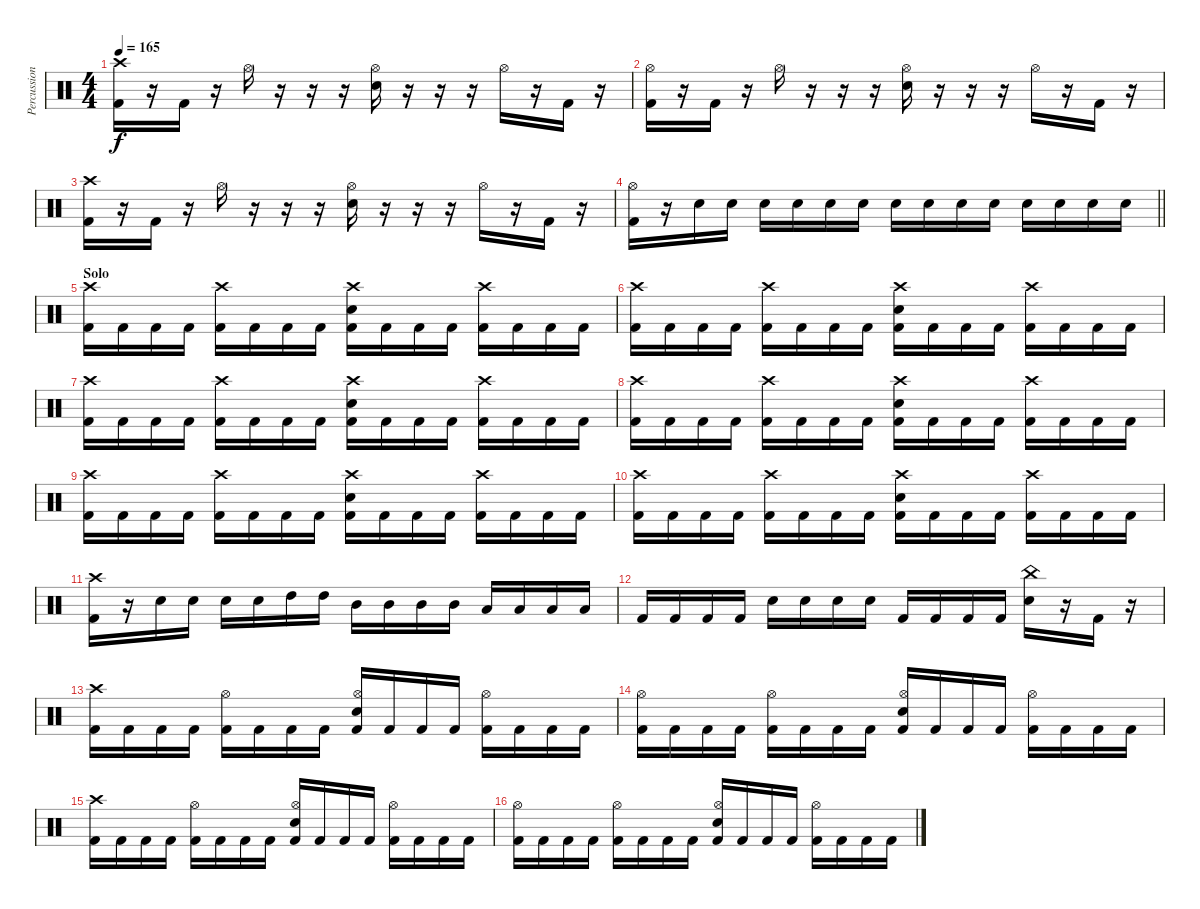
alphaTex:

\track ("Percussion" "Percussion") {instrument percussion}
\staff {score}
\articulation defaults
\ts (4 4)
\tempo 165
\clef neutral
\ks c
("Crash high (hit)" "Kick (hit) 2").16{dy f} r.16 "Kick (hit) 2".16 r.16 "Hi-Hat (open)".16 r.16 r.16 r.16 ("Hi-Hat (open)" "Snare (hit) 2").16 r.16 r.16 r.16 "Hi-Hat (open)".16 r.16 "Kick (hit) 2".16 r.16 |
("Hi-Hat (open)" "Kick (hit) 2").16 r.16 "Kick (hit) 2".16 r.16 "Hi-Hat (open)".16 r.16 r.16 r.16 ("Hi-Hat (open)" "Snare (hit) 2").16 r.16 r.16 r.16 "Hi-Hat (open)".16 r.16 "Kick (hit) 2".16 r.16 |
("Crash high (hit)" "Kick (hit) 2").16 r.16 "Kick (hit) 2".16 r.16 "Hi-Hat (open)".16 r.16 r.16 r.16 ("Hi-Hat (open)" "Snare (hit) 2").16 r.16 r.16 r.16 "Hi-Hat (open)".16 r.16 "Kick (hit) 2".16 r.16 |
\barLineRight lightlight
("Hi-Hat (open)" "Kick (hit) 2").16 r.16 "Snare (hit) 2".16 "Snare (hit) 2".16 "Snare (hit) 2".16 "Snare (hit) 2".16 "Snare (hit) 2".16 "Snare (hit) 2".16 "Snare (hit) 2".16 "Snare (hit) 2".16 "Snare (hit) 2".16 "Snare (hit) 2".16 "Snare (hit) 2".16 "Snare (hit) 2".16 "Snare (hit) 2".16 "Snare (hit) 2".16 |
\section ("" "Solo")
("Crash high (hit)" "Kick (hit) 2").16 "Kick (hit) 2".16 "Kick (hit) 2".16 "Kick (hit) 2".16 ("Crash high (hit)" "Kick (hit) 2").16 "Kick (hit) 2".16 "Kick (hit) 2".16 "Kick (hit) 2".16 ("Crash high (hit)" "Snare (hit) 2" "Kick (hit) 2").16 "Kick (hit) 2".16 "Kick (hit) 2".16 "Kick (hit) 2".16 ("Crash high (hit)" "Kick (hit) 2").16 "Kick (hit) 2".16 "Kick (hit) 2".16 "Kick (hit) 2".16 |
("Crash high (hit)" "Kick (hit) 2").16 "Kick (hit) 2".16 "Kick (hit) 2".16 "Kick (hit) 2".16 ("Crash high (hit)" "Kick (hit) 2").16 "Kick (hit) 2".16 "Kick (hit) 2".16 "Kick (hit) 2".16 ("Crash high (hit)" "Snare (hit) 2" "Kick (hit) 2").16 "Kick (hit) 2".16 "Kick (hit) 2".16 "Kick (hit) 2".16 ("Crash high (hit)" "Kick (hit) 2").16 "Kick (hit) 2".16 "Kick (hit) 2".16 "Kick (hit) 2".16 |
("Crash high (hit)" "Kick (hit) 2").16 "Kick (hit) 2".16 "Kick (hit) 2".16 "Kick (hit) 2".16 ("Crash high (hit)" "Kick (hit) 2").16 "Kick (hit) 2".16 "Kick (hit) 2".16 "Kick (hit) 2".16 ("Crash high (hit)" "Snare (hit) 2" "Kick (hit) 2").16 "Kick (hit) 2".16 "Kick (hit) 2".16 "Kick (hit) 2".16 ("Crash high (hit)" "Kick (hit) 2").16 "Kick (hit) 2".16 "Kick (hit) 2".16 "Kick (hit) 2".16 |
("Crash high (hit)" "Kick (hit) 2").16 "Kick (hit) 2".16 "Kick (hit) 2".16 "Kick (hit) 2".16 ("Crash high (hit)" "Kick (hit) 2").16 "Kick (hit) 2".16 "Kick (hit) 2".16 "Kick (hit) 2".16 ("Crash high (hit)" "Snare (hit) 2" "Kick (hit) 2").16 "Kick (hit) 2".16 "Kick (hit) 2".16 "Kick (hit) 2".16 ("Crash high (hit)" "Kick (hit) 2").16 "Kick (hit) 2".16 "Kick (hit) 2".16 "Kick (hit) 2".16 |
("Crash high (hit)" "Kick (hit) 2").16 "Kick (hit) 2".16 "Kick (hit) 2".16 "Kick (hit) 2".16 ("Crash high (hit)" "Kick (hit) 2").16 "Kick (hit) 2".16 "Kick (hit) 2".16 "Kick (hit) 2".16 ("Crash high (hit)" "Snare (hit) 2" "Kick (hit) 2").16 "Kick (hit) 2".16 "Kick (hit) 2".16 "Kick (hit) 2".16 ("Crash high (hit)" "Kick (hit) 2").16 "Kick (hit) 2".16 "Kick (hit) 2".16 "Kick (hit) 2".16 |
("Crash high (hit)" "Kick (hit) 2").16 "Kick (hit) 2".16 "Kick (hit) 2".16 "Kick (hit) 2".16 ("Crash high (hit)" "Kick (hit) 2").16 "Kick (hit) 2".16 "Kick (hit) 2".16 "Kick (hit) 2".16 ("Crash high (hit)" "Snare (hit) 2" "Kick (hit) 2").16 "Kick (hit) 2".16 "Kick (hit) 2".16 "Kick (hit) 2".16 ("Crash high (hit)" "Kick (hit) 2").16 "Kick (hit) 2".16 "Kick (hit) 2".16 "Kick (hit) 2".16 |
("Crash high (hit)" "Kick (hit) 2").16 r.16 "Snare (hit) 2".16 "Snare (hit) 2".16 "Snare (hit) 2".16 "Snare (hit) 2".16 "High Tom (hit)".16 "High Tom (hit)".16 "Mid Tom (hit)".16 "Mid Tom (hit)".16 "Mid Tom (hit)".16 "Mid Tom (hit)".16 "Low Tom (hit)".16 "Low Tom (hit)".16 "Low Tom (hit)".16 "Low Tom (hit)".16 |
"Kick (hit) 2".16 "Kick (hit) 2".16 "Kick (hit) 2".16 "Kick (hit) 2".16 "Snare (hit) 2".16 "Snare (hit) 2".16 "Snare (hit) 2".16 "Snare (hit) 2".16 "Kick (hit) 2".16 "Kick (hit) 2".16 "Kick (hit) 2".16 "Kick (hit) 2".16 ("China (hit)" "Snare (hit) 2").16 r.16 "Kick (hit) 2".16 r.16 |
("Crash high (hit)" "Kick (hit) 2").16 "Kick (hit) 2".16 "Kick (hit) 2".16 "Kick (hit) 2".16 ("Hi-Hat (open)" "Kick (hit) 2").16 "Kick (hit) 2".16 "Kick (hit) 2".16 "Kick (hit) 2".16 ("Hi-Hat (open)" "Snare (hit) 2" "Kick (hit) 2").16 "Kick (hit) 2".16 "Kick (hit) 2".16 "Kick (hit) 2".16 ("Hi-Hat (open)" "Kick (hit) 2").16 "Kick (hit) 2".16 "Kick (hit) 2".16 "Kick (hit) 2".16 |
("Hi-Hat (open)" "Kick (hit) 2").16 "Kick (hit) 2".16 "Kick (hit) 2".16 "Kick (hit) 2".16 ("Hi-Hat (open)" "Kick (hit) 2").16 "Kick (hit) 2".16 "Kick (hit) 2".16 "Kick (hit) 2".16 ("Hi-Hat (open)" "Snare (hit) 2" "Kick (hit) 2").16 "Kick (hit) 2".16 "Kick (hit) 2".16 "Kick (hit) 2".16 ("Hi-Hat (open)" "Kick (hit) 2").16 "Kick (hit) 2".16 "Kick (hit) 2".16 "Kick (hit) 2".16 |
("Crash high (hit)" "Kick (hit) 2").16 "Kick (hit) 2".16 "Kick (hit) 2".16 "Kick (hit) 2".16 ("Hi-Hat (open)" "Kick (hit) 2").16 "Kick (hit) 2".16 "Kick (hit) 2".16 "Kick (hit) 2".16 ("Hi-Hat (open)" "Snare (hit) 2" "Kick (hit) 2").16 "Kick (hit) 2".16 "Kick (hit) 2".16 "Kick (hit) 2".16 ("Hi-Hat (open)" "Kick (hit) 2").16 "Kick (hit) 2".16 "Kick (hit) 2".16 "Kick (hit) 2".16 |
("Hi-Hat (open)" "Kick (hit) 2").16 "Kick (hit) 2".16 "Kick (hit) 2".16 "Kick (hit) 2".16 ("Hi-Hat (open)" "Kick (hit) 2").16 "Kick (hit) 2".16 "Kick (hit) 2".16 "Kick (hit) 2".16 ("Hi-Hat (open)" "Snare (hit) 2" "Kick (hit) 2").16 "Kick (hit) 2".16 "Kick (hit) 2".16 "Kick (hit) 2".16 ("Hi-Hat (open)" "Kick (hit) 2").16 "Kick (hit) 2".16 "Kick (hit) 2".16 "Kick (hit) 2".16
